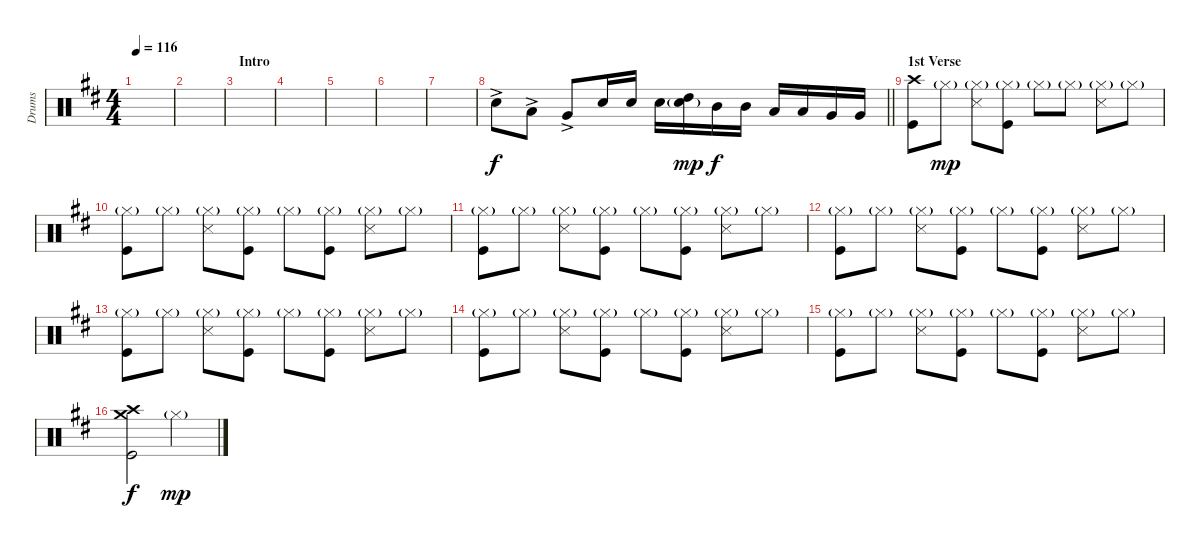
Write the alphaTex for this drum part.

\track ("Drums" "Drums") {instrument percussion}
\staff {score}
\articulation defaults
\ts (4 4)
\tempo 116
\clef neutral
\ks d
|
|
\section ("" "Intro")
|
|
|
|
|
\barLineRight lightlight "Snare (hit) 2"{ac}.8 "Low Tom (hit)"{ac}.8 "Very Low Tom (hit)"{ac}.8 "Snare (hit) 2".16{dy f} "Snare (hit) 2".16 "Snare (hit) 2".16
("High Tom (hit)" "Snare (hit) 2"{g}).16{dy mp} "Mid Tom (hit)".16{dy f} "Mid Tom (hit)".16 "Low Tom (hit)".16 "Low Tom (hit)".16 "Very Low Tom (hit)".16 "Very Low Tom (hit)".16 |
\section ("" "1st Verse")
("Crash high (hit)" "Kick (hit)").8 "Hi-Hat (closed)"{g}.8{dy mp} ("Hi-Hat (closed)"{g} "Snare (side stick) 3").8 ("Hi-Hat (closed)"{g} "Kick (hit)").8 "Hi-Hat (closed)"{g}.8 "Hi-Hat (closed)"{g}.8 ("Hi-Hat (closed)"{g} "Snare (side stick) 3").8 "Hi-Hat (closed)"{g}.8 |
("Hi-Hat (closed)"{g} "Kick (hit)").8 "Hi-Hat (closed)"{g}.8 ("Hi-Hat (closed)"{g} "Snare (side stick) 3").8 ("Hi-Hat (closed)"{g} "Kick (hit)").8 "Hi-Hat (closed)"{g}.8 ("Hi-Hat (closed)"{g} "Kick (hit)").8 ("Hi-Hat (closed)"{g} "Snare (side stick) 3").8 "Hi-Hat (closed)"{g}.8 |
("Hi-Hat (closed)"{g} "Kick (hit)").8 "Hi-Hat (closed)"{g}.8 ("Hi-Hat (closed)"{g} "Snare (side stick) 3").8 ("Hi-Hat (closed)"{g} "Kick (hit)").8 "Hi-Hat (closed)"{g}.8 ("Hi-Hat (closed)"{g} "Kick (hit)").8 ("Hi-Hat (closed)"{g} "Snare (side stick) 3").8 "Hi-Hat (closed)"{g}.8 |
("Hi-Hat (closed)"{g} "Kick (hit)").8 "Hi-Hat (closed)"{g}.8 ("Hi-Hat (closed)"{g} "Snare (side stick) 3").8 ("Hi-Hat (closed)"{g} "Kick (hit)").8 "Hi-Hat (closed)"{g}.8 ("Hi-Hat (closed)"{g} "Kick (hit)").8 ("Hi-Hat (closed)"{g} "Snare (side stick) 3").8 "Hi-Hat (closed)"{g}.8 |
("Hi-Hat (closed)"{g} "Kick (hit)").8 "Hi-Hat (closed)"{g}.8 ("Hi-Hat (closed)"{g} "Snare (side stick) 3").8 ("Hi-Hat (closed)"{g} "Kick (hit)").8 "Hi-Hat (closed)"{g}.8 ("Hi-Hat (closed)"{g} "Kick (hit)").8 ("Hi-Hat (closed)"{g} "Snare (side stick) 3").8 "Hi-Hat (closed)"{g}.8 |
("Hi-Hat (closed)"{g} "Kick (hit)").8 "Hi-Hat (closed)"{g}.8 ("Hi-Hat (closed)"{g} "Snare (side stick) 3").8 ("Hi-Hat (closed)"{g} "Kick (hit)").8 "Hi-Hat (closed)"{g}.8 ("Hi-Hat (closed)"{g} "Kick (hit)").8 ("Hi-Hat (closed)"{g} "Snare (side stick) 3").8 "Hi-Hat (closed)"{g}.8 |
("Hi-Hat (closed)"{g} "Kick (hit)").8 "Hi-Hat (closed)"{g}.8 ("Hi-Hat (closed)"{g} "Snare (side stick) 3").8 ("Hi-Hat (closed)"{g} "Kick (hit)").8 "Hi-Hat (closed)"{g}.8 ("Hi-Hat (closed)"{g} "Kick (hit)").8 ("Hi-Hat (closed)"{g} "Snare (side stick) 3").8 "Hi-Hat (closed)"{g}.8 |
("Crash medium (hit)" "Crash high (hit)" "Kick (hit)").2{dy f} "Hi-Hat (closed)"{g}.2{dy mp}
